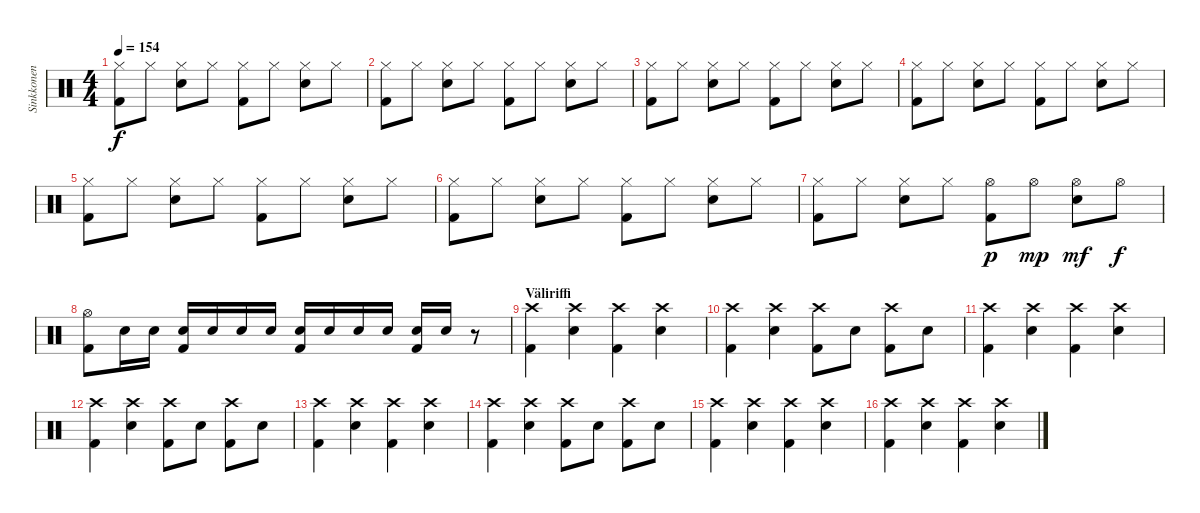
\track ("Sinkkonen" "Sinkkonen") {instrument percussion}
\staff {score}
\articulation defaults
\ts (4 4)
\tempo 154
\clef neutral
\ks c
("Kick (hit) 2" "Hi-Hat (closed)").8{dy f} "Hi-Hat (closed)".8 ("Hi-Hat (closed)" "Snare (hit) 2").8 "Hi-Hat (closed)".8 ("Kick (hit) 2" "Hi-Hat (closed)").8 "Hi-Hat (closed)".8 ("Hi-Hat (closed)" "Snare (hit) 2").8 "Hi-Hat (closed)".8 |
("Kick (hit) 2" "Hi-Hat (closed)").8 "Hi-Hat (closed)".8 ("Hi-Hat (closed)" "Snare (hit) 2").8 "Hi-Hat (closed)".8 ("Kick (hit) 2" "Hi-Hat (closed)").8 "Hi-Hat (closed)".8 ("Hi-Hat (closed)" "Snare (hit) 2").8 "Hi-Hat (closed)".8 |
("Kick (hit) 2" "Hi-Hat (closed)").8 "Hi-Hat (closed)".8 ("Hi-Hat (closed)" "Snare (hit) 2").8 "Hi-Hat (closed)".8 ("Kick (hit) 2" "Hi-Hat (closed)").8 "Hi-Hat (closed)".8 ("Hi-Hat (closed)" "Snare (hit) 2").8 "Hi-Hat (closed)".8 |
("Kick (hit) 2" "Hi-Hat (closed)").8 "Hi-Hat (closed)".8 ("Hi-Hat (closed)" "Snare (hit) 2").8 "Hi-Hat (closed)".8 ("Kick (hit) 2" "Hi-Hat (closed)").8 "Hi-Hat (closed)".8 ("Hi-Hat (closed)" "Snare (hit) 2").8 "Hi-Hat (closed)".8 |
("Kick (hit) 2" "Hi-Hat (closed)").8 "Hi-Hat (closed)".8 ("Hi-Hat (closed)" "Snare (hit) 2").8 "Hi-Hat (closed)".8 ("Kick (hit) 2" "Hi-Hat (closed)").8 "Hi-Hat (closed)".8 ("Hi-Hat (closed)" "Snare (hit) 2").8 "Hi-Hat (closed)".8 |
("Kick (hit) 2" "Hi-Hat (closed)").8 "Hi-Hat (closed)".8 ("Hi-Hat (closed)" "Snare (hit) 2").8 "Hi-Hat (closed)".8 ("Kick (hit) 2" "Hi-Hat (closed)").8 "Hi-Hat (closed)".8 ("Hi-Hat (closed)" "Snare (hit) 2").8 "Hi-Hat (closed)".8 |
("Kick (hit) 2" "Hi-Hat (closed)").8 "Hi-Hat (closed)".8 ("Hi-Hat (closed)" "Snare (hit) 2").8 "Hi-Hat (closed)".8 ("Kick (hit) 2" "Hi-Hat (open)").8{dy p} "Hi-Hat (open)".8{dy mp} ("Hi-Hat (open)" "Snare (hit) 2").8{dy mf} "Hi-Hat (open)".8{dy f} |
("Kick (hit) 2" "Hi-Hat (open)").8 "Snare (hit) 2".16 "Snare (hit) 2".16 ("Kick (hit) 2" "Snare (hit) 2").16 "Snare (hit) 2".16 "Snare (hit) 2".16 "Snare (hit) 2".16 ("Kick (hit) 2" "Snare (hit) 2").16 "Snare (hit) 2".16 "Snare (hit) 2".16 "Snare (hit) 2".16 ("Kick (hit) 2" "Snare (hit) 2").16 "Snare (hit) 2".16 r.8 |
\section ("" "Väliriffi")
("Kick (hit) 2" "Crash high (hit)").4 ("Crash high (hit)" "Snare (hit) 2").4 ("Kick (hit) 2" "Crash high (hit)").4 ("Crash high (hit)" "Snare (hit) 2").4 |
("Kick (hit) 2" "Crash high (hit)").4 ("Crash high (hit)" "Snare (hit) 2").4 ("Kick (hit) 2" "Crash high (hit)").8 "Snare (hit) 2".8 ("Kick (hit) 2" "Crash high (hit)").8 "Snare (hit) 2".8 |
("Kick (hit) 2" "Crash high (hit)").4 ("Crash high (hit)" "Snare (hit) 2").4 ("Kick (hit) 2" "Crash high (hit)").4 ("Crash high (hit)" "Snare (hit) 2").4 |
("Kick (hit) 2" "Crash high (hit)").4 ("Crash high (hit)" "Snare (hit) 2").4 ("Kick (hit) 2" "Crash high (hit)").8 "Snare (hit) 2".8 ("Kick (hit) 2" "Crash high (hit)").8 "Snare (hit) 2".8 |
("Kick (hit) 2" "Crash high (hit)").4 ("Crash high (hit)" "Snare (hit) 2").4 ("Kick (hit) 2" "Crash high (hit)").4 ("Crash high (hit)" "Snare (hit) 2").4 |
("Kick (hit) 2" "Crash high (hit)").4 ("Crash high (hit)" "Snare (hit) 2").4 ("Kick (hit) 2" "Crash high (hit)").8 "Snare (hit) 2".8 ("Kick (hit) 2" "Crash high (hit)").8 "Snare (hit) 2".8 |
("Kick (hit) 2" "Crash high (hit)").4 ("Crash high (hit)" "Snare (hit) 2").4 ("Kick (hit) 2" "Crash high (hit)").4 ("Crash high (hit)" "Snare (hit) 2").4 |
("Kick (hit) 2" "Crash high (hit)").4 ("Crash high (hit)" "Snare (hit) 2").4 ("Kick (hit) 2" "Crash high (hit)").4 ("Crash high (hit)" "Snare (hit) 2").4
